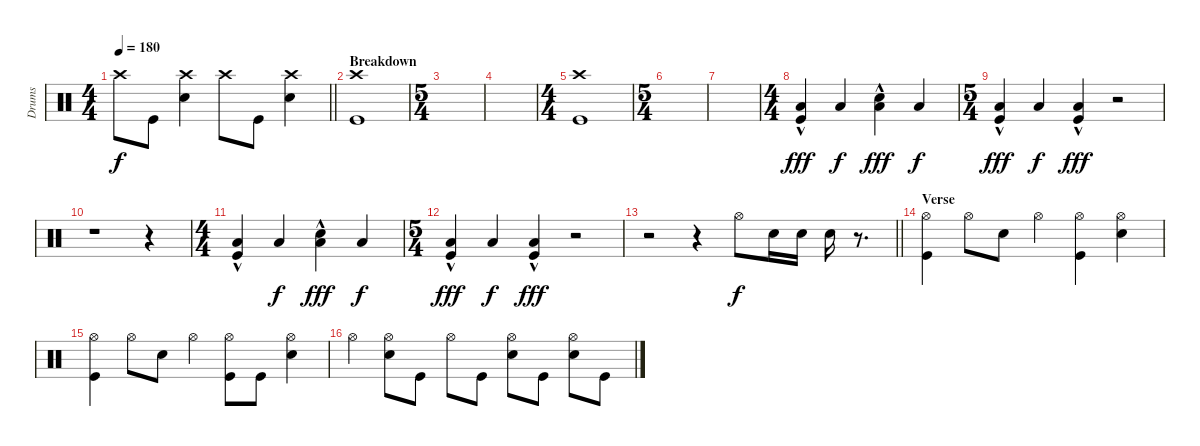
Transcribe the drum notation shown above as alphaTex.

\track ("Drums" "Drums") {instrument percussion}
\staff {score}
\articulation defaults
\ts (4 4)
\tempo 180
\clef neutral
\barLineRight lightlight
\ks c "Crash high (hit)".8{dy f} "Kick (hit)".8
("Crash high (hit)" "Snare (hit) 2").4 "Crash high (hit)".8 "Kick (hit)".8 ("Crash high (hit)" "Snare (hit) 2").4 |
\section ("" "Breakdown")
("Crash high (hit)" "Kick (hit)").1 |
\ts (5 4)
|
|
\ts (4 4)
("Crash high (hit)" "Kick (hit)").1 |
\ts (5 4)
|
|
\ts (4 4)
("Low Tom (hit)"{hac} "Kick (hit)").4{dy fff} "Low Tom (hit)".4{dy f} ("Low Tom (hit)"{hac} "Snare (hit) 2").4{dy fff} "Low Tom (hit)".4{dy f} |
\ts (5 4)
("Low Tom (hit)"{hac} "Kick (hit)").4{dy fff} "Low Tom (hit)".4{dy f} ("Low Tom (hit)"{hac} "Kick (hit)").4{dy fff} r.2 |
r.1 r.4 |
\ts (4 4)
("Low Tom (hit)"{hac} "Kick (hit)").4 "Low Tom (hit)".4{dy f} ("Low Tom (hit)"{hac} "Snare (hit) 2").4{dy fff} "Low Tom (hit)".4{dy f} |
\ts (5 4)
("Low Tom (hit)"{hac} "Kick (hit)").4{dy fff} "Low Tom (hit)".4{dy f} ("Low Tom (hit)"{hac} "Kick (hit)").4{dy fff} r.2 |
\barLineRight lightlight
r.2 r.4 "Hi-Hat (open)".8{dy f} "Snare (hit) 2".16 "Snare (hit) 2".16 "Snare (hit) 2".16 r.8{d} |
\section ("" "Verse")
("Hi-Hat (open)" "Kick (hit)").4 "Hi-Hat (open)".8 "Snare (hit) 2".8 "Hi-Hat (open)".4 ("Hi-Hat (open)" "Kick (hit)").4 ("Hi-Hat (open)" "Snare (hit) 2").4 |
("Hi-Hat (open)" "Kick (hit)").4 "Hi-Hat (open)".8 "Snare (hit) 2".8 "Hi-Hat (open)".4 ("Hi-Hat (open)" "Kick (hit)").8 "Kick (hit)".8 ("Hi-Hat (open)" "Snare (hit) 2").4 |
"Hi-Hat (open)".4 ("Hi-Hat (open)" "Snare (hit) 2").8 "Kick (hit)".8 "Hi-Hat (open)".8 "Kick (hit)".8 ("Hi-Hat (open)" "Snare (hit) 2").8 "Kick (hit)".8 ("Hi-Hat (open)" "Snare (hit) 2").8 "Kick (hit)".8
